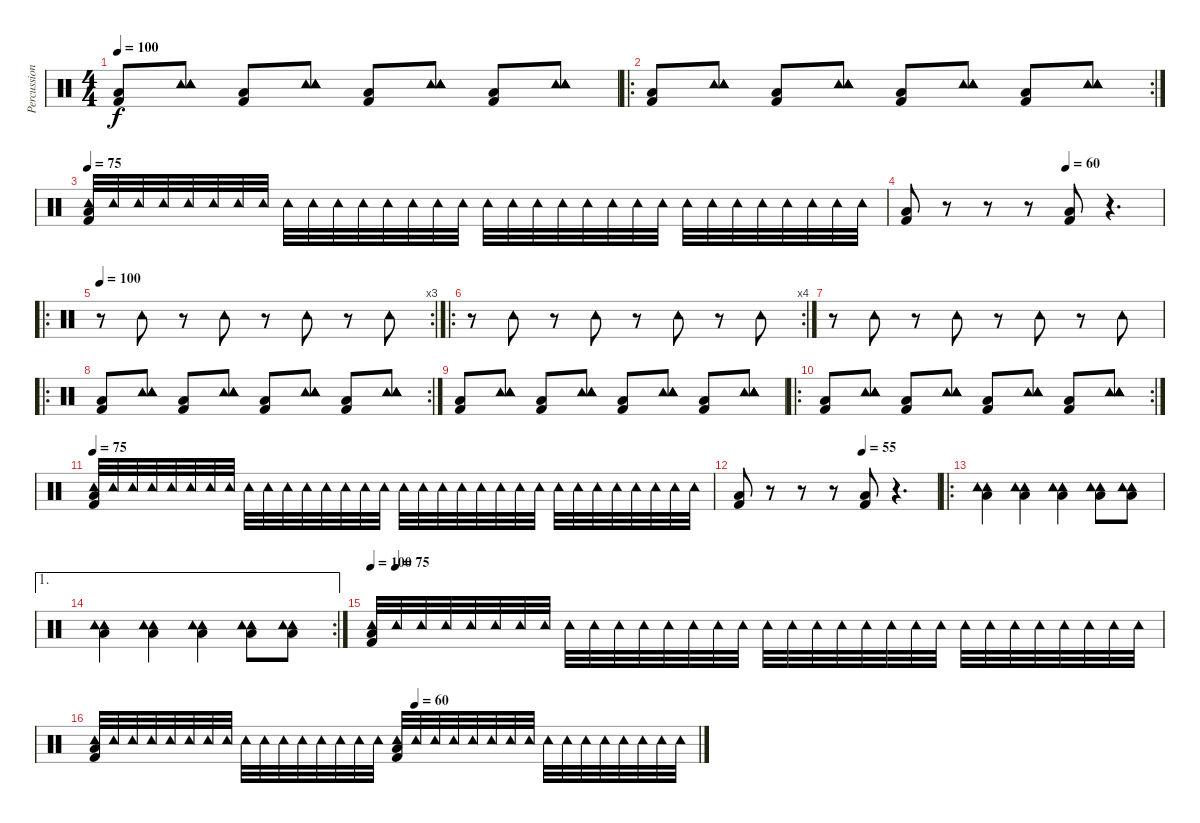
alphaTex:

\track ("Percussion" "Percussion") {instrument percussion}
\staff {score}
\articulation defaults
\ts (4 4)
\tempo 100
\clef neutral
\ks c
("Kick (hit) 2" "Low Floor Tom (hit)").8{dy f} ("Tambourine (hit)" "Tambourine (hit)" "Tambourine (hit)" "Tambourine (hit)").8 ("Kick (hit) 2" "Low Floor Tom (hit)").8 ("Tambourine (hit)" "Tambourine (hit)" "Tambourine (hit)" "Tambourine (hit)").8 ("Kick (hit) 2" "Low Floor Tom (hit)").8 ("Tambourine (hit)" "Tambourine (hit)" "Tambourine (hit)" "Tambourine (hit)").8 ("Kick (hit) 2" "Low Floor Tom (hit)").8 ("Tambourine (hit)" "Tambourine (hit)" "Tambourine (hit)" "Tambourine (hit)").8 |
\ro
\rc 2
("Kick (hit) 2" "Low Floor Tom (hit)").8 ("Tambourine (hit)" "Tambourine (hit)" "Tambourine (hit)" "Tambourine (hit)").8 ("Kick (hit) 2" "Low Floor Tom (hit)").8 ("Tambourine (hit)" "Tambourine (hit)" "Tambourine (hit)" "Tambourine (hit)").8 ("Kick (hit) 2" "Low Floor Tom (hit)").8 ("Tambourine (hit)" "Tambourine (hit)" "Tambourine (hit)" "Tambourine (hit)").8 ("Kick (hit) 2" "Low Floor Tom (hit)").8 ("Tambourine (hit)" "Tambourine (hit)" "Tambourine (hit)" "Tambourine (hit)").8 |
\tempo 75
("Tambourine (hit)" "Kick (hit) 2" "Low Floor Tom (hit)").32{volume 6} "Tambourine (hit)".32 "Tambourine (hit)".32 "Tambourine (hit)".32 "Tambourine (hit)".32 "Tambourine (hit)".32 "Tambourine (hit)".32 "Tambourine (hit)".32 "Tambourine (hit)".32 "Tambourine (hit)".32 "Tambourine (hit)".32 "Tambourine (hit)".32 "Tambourine (hit)".32 "Tambourine (hit)".32 "Tambourine (hit)".32 "Tambourine (hit)".32 "Tambourine (hit)".32 "Tambourine (hit)".32 "Tambourine (hit)".32 "Tambourine (hit)".32 "Tambourine (hit)".32 "Tambourine (hit)".32 "Tambourine (hit)".32 "Tambourine (hit)".32 "Tambourine (hit)".32 "Tambourine (hit)".32 "Tambourine (hit)".32 "Tambourine (hit)".32 "Tambourine (hit)".32 "Tambourine (hit)".32 "Tambourine (hit)".32 "Tambourine (hit)".32 |
\tempo (60 0.625)
("Kick (hit) 2" "Low Floor Tom (hit)").8 r.8 r.8 r.8 ("Kick (hit) 2" "Low Floor Tom (hit)").8 r.4{d} |
\ro
\rc 3
\tempo 100
r.8{volume 13} "Tambourine (hit)".8 r.8 "Tambourine (hit)".8 r.8 "Tambourine (hit)".8 r.8 "Tambourine (hit)".8 |
\ro
\rc 4
r.8 "Tambourine (hit)".8 r.8 "Tambourine (hit)".8 r.8 "Tambourine (hit)".8 r.8 "Tambourine (hit)".8 |
r.8 "Tambourine (hit)".8 r.8 "Tambourine (hit)".8 r.8 "Tambourine (hit)".8 r.8 "Tambourine (hit)".8 |
\ro
\rc 2
("Kick (hit) 2" "Low Floor Tom (hit)").8 ("Tambourine (hit)" "Tambourine (hit)" "Tambourine (hit)" "Tambourine (hit)").8 ("Kick (hit) 2" "Low Floor Tom (hit)").8 ("Tambourine (hit)" "Tambourine (hit)" "Tambourine (hit)" "Tambourine (hit)").8 ("Kick (hit) 2" "Low Floor Tom (hit)").8 ("Tambourine (hit)" "Tambourine (hit)" "Tambourine (hit)" "Tambourine (hit)").8 ("Kick (hit) 2" "Low Floor Tom (hit)").8 ("Tambourine (hit)" "Tambourine (hit)" "Tambourine (hit)" "Tambourine (hit)").8 |
("Kick (hit) 2" "Low Floor Tom (hit)").8 ("Tambourine (hit)" "Tambourine (hit)" "Tambourine (hit)" "Tambourine (hit)").8 ("Kick (hit) 2" "Low Floor Tom (hit)").8 ("Tambourine (hit)" "Tambourine (hit)" "Tambourine (hit)" "Tambourine (hit)").8 ("Kick (hit) 2" "Low Floor Tom (hit)").8 ("Tambourine (hit)" "Tambourine (hit)" "Tambourine (hit)" "Tambourine (hit)").8 ("Kick (hit) 2" "Low Floor Tom (hit)").8 ("Tambourine (hit)" "Tambourine (hit)" "Tambourine (hit)" "Tambourine (hit)").8 |
\ro
\rc 2
("Kick (hit) 2" "Low Floor Tom (hit)").8 ("Tambourine (hit)" "Tambourine (hit)" "Tambourine (hit)" "Tambourine (hit)").8 ("Kick (hit) 2" "Low Floor Tom (hit)").8 ("Tambourine (hit)" "Tambourine (hit)" "Tambourine (hit)" "Tambourine (hit)").8 ("Kick (hit) 2" "Low Floor Tom (hit)").8 ("Tambourine (hit)" "Tambourine (hit)" "Tambourine (hit)" "Tambourine (hit)").8 ("Kick (hit) 2" "Low Floor Tom (hit)").8 ("Tambourine (hit)" "Tambourine (hit)" "Tambourine (hit)" "Tambourine (hit)").8 |
\tempo 75
("Tambourine (hit)" "Kick (hit) 2" "Low Floor Tom (hit)").32{volume 6} "Tambourine (hit)".32 "Tambourine (hit)".32 "Tambourine (hit)".32 "Tambourine (hit)".32 "Tambourine (hit)".32 "Tambourine (hit)".32 "Tambourine (hit)".32 "Tambourine (hit)".32 "Tambourine (hit)".32 "Tambourine (hit)".32 "Tambourine (hit)".32 "Tambourine (hit)".32 "Tambourine (hit)".32 "Tambourine (hit)".32 "Tambourine (hit)".32 "Tambourine (hit)".32 "Tambourine (hit)".32 "Tambourine (hit)".32 "Tambourine (hit)".32 "Tambourine (hit)".32 "Tambourine (hit)".32 "Tambourine (hit)".32 "Tambourine (hit)".32 "Tambourine (hit)".32 "Tambourine (hit)".32 "Tambourine (hit)".32 "Tambourine (hit)".32 "Tambourine (hit)".32 "Tambourine (hit)".32 "Tambourine (hit)".32 "Tambourine (hit)".32 |
\tempo (55 0.625)
("Kick (hit) 2" "Low Floor Tom (hit)").8 r.8 r.8 r.8 ("Kick (hit) 2" "Low Floor Tom (hit)").8 r.4{d} |
\ro
("Tambourine (hit)" "Tambourine (hit)" "Low Floor Tom (hit)").4 ("Tambourine (hit)" "Tambourine (hit)" "Low Floor Tom (hit)").4 ("Tambourine (hit)" "Tambourine (hit)" "Low Floor Tom (hit)").4 ("Tambourine (hit)" "Tambourine (hit)" "Low Floor Tom (hit)").8 ("Tambourine (hit)" "Tambourine (hit)" "Low Floor Tom (hit)").8 |
\ae 1
\rc 2
("Tambourine (hit)" "Tambourine (hit)" "Low Floor Tom (hit)").4 ("Tambourine (hit)" "Tambourine (hit)" "Low Floor Tom (hit)").4 ("Tambourine (hit)" "Tambourine (hit)" "Low Floor Tom (hit)").4 ("Tambourine (hit)" "Tambourine (hit)" "Low Floor Tom (hit)").8 ("Tambourine (hit)" "Tambourine (hit)" "Low Floor Tom (hit)").8 |
\tempo 100
\tempo (75 0.03125)
("Tambourine (hit)" "Kick (hit) 2" "Low Floor Tom (hit)").32{volume 6} "Tambourine (hit)".32 "Tambourine (hit)".32 "Tambourine (hit)".32 "Tambourine (hit)".32 "Tambourine (hit)".32 "Tambourine (hit)".32 "Tambourine (hit)".32 "Tambourine (hit)".32 "Tambourine (hit)".32 "Tambourine (hit)".32 "Tambourine (hit)".32 "Tambourine (hit)".32 "Tambourine (hit)".32 "Tambourine (hit)".32 "Tambourine (hit)".32 "Tambourine (hit)".32 "Tambourine (hit)".32 "Tambourine (hit)".32 "Tambourine (hit)".32 "Tambourine (hit)".32 "Tambourine (hit)".32 "Tambourine (hit)".32 "Tambourine (hit)".32 "Tambourine (hit)".32 "Tambourine (hit)".32 "Tambourine (hit)".32 "Tambourine (hit)".32 "Tambourine (hit)".32 "Tambourine (hit)".32 "Tambourine (hit)".32 "Tambourine (hit)".32 |
\tempo (60 0.53125)
("Tambourine (hit)" "Kick (hit) 2" "Low Floor Tom (hit)").32 "Tambourine (hit)".32 "Tambourine (hit)".32 "Tambourine (hit)".32 "Tambourine (hit)".32 "Tambourine (hit)".32 "Tambourine (hit)".32 "Tambourine (hit)".32 "Tambourine (hit)".32 "Tambourine (hit)".32 "Tambourine (hit)".32 "Tambourine (hit)".32 "Tambourine (hit)".32 "Tambourine (hit)".32 "Tambourine (hit)".32 "Tambourine (hit)".32 ("Tambourine (hit)" "Kick (hit) 2" "Low Floor Tom (hit)").32 "Tambourine (hit)".32 "Tambourine (hit)".32 "Tambourine (hit)".32 "Tambourine (hit)".32 "Tambourine (hit)".32 "Tambourine (hit)".32 "Tambourine (hit)".32 "Tambourine (hit)".32 "Tambourine (hit)".32 "Tambourine (hit)".32 "Tambourine (hit)".32 "Tambourine (hit)".32 "Tambourine (hit)".32 "Tambourine (hit)".32 "Tambourine (hit)".32
